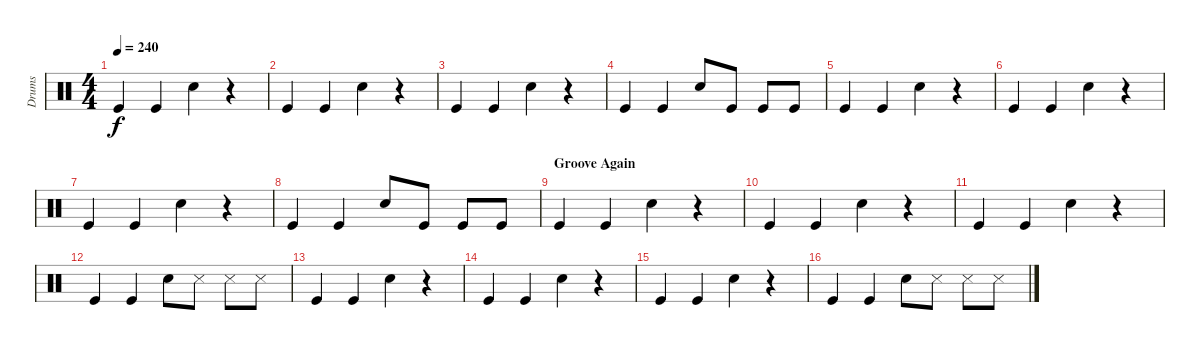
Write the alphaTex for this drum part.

\track ("Drums" "Drums") {instrument percussion}
\staff {score}
\articulation defaults
\ts (4 4)
\tempo 240
\clef neutral
\ks c "Kick (hit)".4{dy f} "Kick (hit)".4 "Snare (hit) 2".4
r.4 |
"Kick (hit)".4 "Kick (hit)".4 "Snare (hit) 2".4 r.4 |
"Kick (hit)".4 "Kick (hit)".4 "Snare (hit) 2".4 r.4 |
"Kick (hit)".4 "Kick (hit)".4 "Snare (hit) 2".8 "Kick (hit)".8 "Kick (hit)".8 "Kick (hit)".8 |
"Kick (hit)".4 "Kick (hit)".4 "Snare (hit) 2".4 r.4 |
"Kick (hit)".4 "Kick (hit)".4 "Snare (hit) 2".4 r.4 |
"Kick (hit)".4 "Kick (hit)".4 "Snare (hit) 2".4 r.4 |
"Kick (hit)".4 "Kick (hit)".4 "Snare (hit) 2".8 "Kick (hit)".8 "Kick (hit)".8 "Kick (hit)".8 |
\section ("" "Groove Again")
"Kick (hit)".4 "Kick (hit)".4 "Snare (hit) 2".4 r.4 |
"Kick (hit)".4 "Kick (hit)".4 "Snare (hit) 2".4 r.4 |
"Kick (hit)".4 "Kick (hit)".4 "Snare (hit) 2".4 r.4 |
"Kick (hit)".4 "Kick (hit)".4 "Snare (hit) 2".8 "Snare (side stick) 3".8 "Snare (side stick) 3".8 "Snare (side stick) 3".8 |
"Kick (hit)".4 "Kick (hit)".4 "Snare (hit) 2".4 r.4 |
"Kick (hit)".4 "Kick (hit)".4 "Snare (hit) 2".4 r.4 |
"Kick (hit)".4 "Kick (hit)".4 "Snare (hit) 2".4 r.4 |
"Kick (hit)".4 "Kick (hit)".4 "Snare (hit) 2".8 "Snare (side stick) 3".8 "Snare (side stick) 3".8 "Snare (side stick) 3".8
